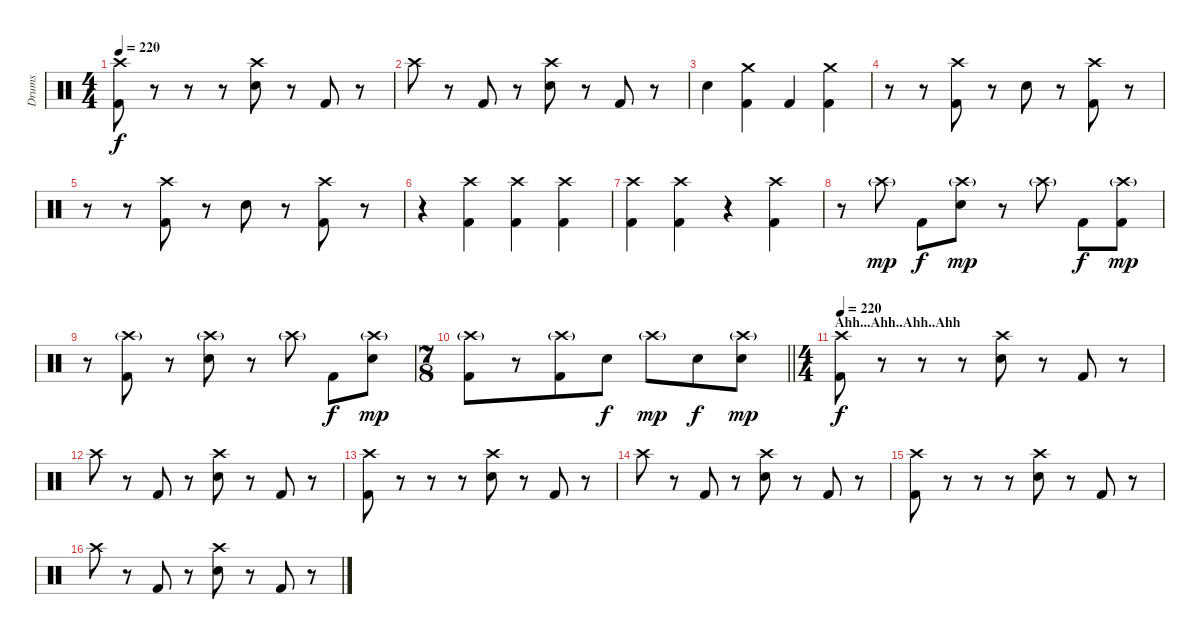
\track ("Drums" "Drums") {instrument percussion}
\staff {score}
\articulation defaults
\ts (4 4)
\tempo 220
\clef neutral
\ks c
("Crash high (hit)" "Kick (hit) 2").8{dy f} r.8 r.8 r.8 ("Crash high (hit)" "Electric Snare (hit)").8 r.8 "Kick (hit) 2".8 r.8 |
"Crash high (hit)".8 r.8 "Kick (hit) 2".8 r.8 ("Crash high (hit)" "Electric Snare (hit)").8 r.8 "Kick (hit) 2".8 r.8 |
"Electric Snare (hit)".4 ("Crash medium (hit)" "Kick (hit) 2").4 "Kick (hit) 2".4 ("Crash medium (hit)" "Kick (hit) 2").4 |
r.8 r.8 ("Crash high (hit)" "Kick (hit) 2").8 r.8 "Electric Snare (hit)".8 r.8 ("Crash high (hit)" "Kick (hit) 2").8 r.8 |
r.8 r.8 ("Crash high (hit)" "Kick (hit) 2").8 r.8 "Electric Snare (hit)".8 r.8 ("Crash high (hit)" "Kick (hit) 2").8 r.8 |
r.4 ("Crash high (hit)" "Kick (hit) 2").4 ("Crash high (hit)" "Kick (hit) 2").4 ("Crash high (hit)" "Kick (hit) 2").4 |
("Crash high (hit)" "Kick (hit) 2").4 ("Crash high (hit)" "Kick (hit) 2").4 r.4 ("Kick (hit) 2" "Crash high (hit)").4 |
r.8 "Crash high (hit)"{g}.8{dy mp} "Kick (hit) 2".8{dy f} ("Crash high (hit)"{g} "Electric Snare (hit)").8{dy mp} r.8 "Crash high (hit)"{g}.8 "Kick (hit) 2".8{dy f} ("Crash high (hit)"{g} "Kick (hit) 2").8{dy mp} |
r.8 ("Crash high (hit)"{g} "Kick (hit) 2").8 r.8 ("Crash high (hit)"{g} "Electric Snare (hit)").8 r.8 "Crash high (hit)"{g}.8 "Kick (hit) 2".8{dy f} ("Crash high (hit)"{g} "Electric Snare (hit)").8{dy mp} |
\ts (7 8)
\barLineRight lightlight
("Crash high (hit)"{g} "Kick (hit) 2").8 r.8 ("Crash high (hit)"{g} "Kick (hit) 2").8 "Electric Snare (hit)".8{dy f} "Crash high (hit)"{g}.8{dy mp} "Electric Snare (hit)".8{dy f} ("Crash high (hit)"{g} "Electric Snare (hit)").8{dy mp} |
\ts (4 4)
\section ("" "Ahh...Ahh..Ahh..Ahh")
\tempo 220
("Crash high (hit)" "Kick (hit) 2").8{dy f} r.8 r.8 r.8 ("Crash high (hit)" "Electric Snare (hit)").8 r.8 "Kick (hit) 2".8 r.8 |
"Crash high (hit)".8 r.8 "Kick (hit) 2".8 r.8 ("Crash high (hit)" "Electric Snare (hit)").8 r.8 "Kick (hit) 2".8 r.8 |
("Crash high (hit)" "Kick (hit) 2").8 r.8 r.8 r.8 ("Crash high (hit)" "Electric Snare (hit)").8 r.8 "Kick (hit) 2".8 r.8 |
"Crash high (hit)".8{volume 0} r.8 "Kick (hit) 2".8 r.8 ("Crash high (hit)" "Electric Snare (hit)").8 r.8 "Kick (hit) 2".8 r.8 |
("Crash high (hit)" "Kick (hit) 2").8 r.8 r.8 r.8 ("Crash high (hit)" "Electric Snare (hit)").8 r.8 "Kick (hit) 2".8 r.8 |
"Crash high (hit)".8 r.8 "Kick (hit) 2".8 r.8 ("Crash high (hit)" "Electric Snare (hit)").8 r.8 "Kick (hit) 2".8 r.8
